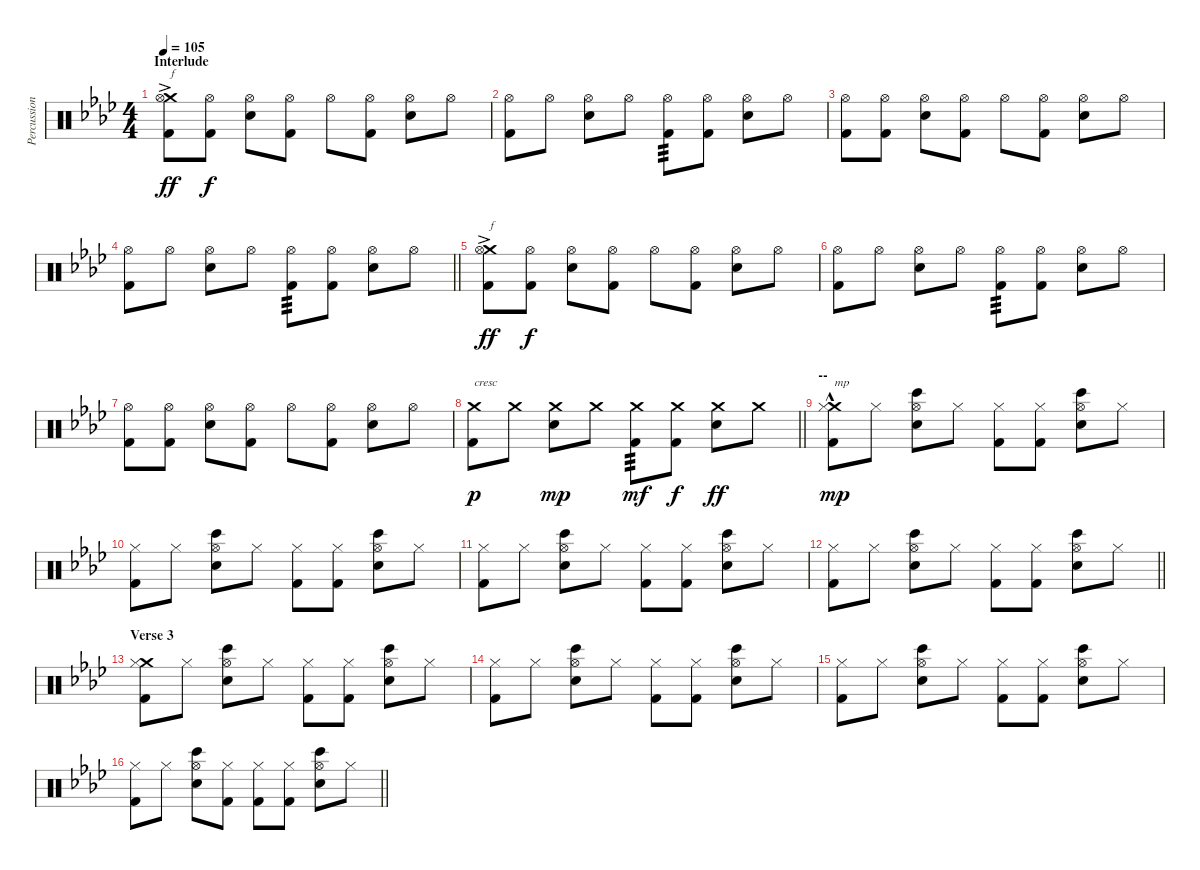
\track ("Percussion" "Percussion") {instrument percussion}
\staff {score}
\articulation defaults
\ts (4 4)
\section ("" "Interlude")
\tempo 105
\clef neutral
\ks fminor
("Crash medium (hit)"{ac} "Hi-Hat (open)"{ac} "Kick (hit) 2"{ac}).8{txt "f" dy ff} ("Hi-Hat (open)" "Kick (hit) 2").8{dy f} ("Hi-Hat (open)" "Electric Snare (hit)").8 ("Hi-Hat (open)" "Kick (hit) 2").8 "Hi-Hat (open)".8 ("Hi-Hat (open)" "Kick (hit) 2").8 ("Hi-Hat (open)" "Electric Snare (hit)").8 "Hi-Hat (open)".8 |
("Hi-Hat (open)" "Kick (hit) 2").8 "Hi-Hat (open)".8 ("Hi-Hat (open)" "Electric Snare (hit)").8 "Hi-Hat (open)".8 ("Hi-Hat (open)" "Kick (hit) 2").8{tp 3} ("Hi-Hat (open)" "Kick (hit) 2").8 ("Hi-Hat (open)" "Electric Snare (hit)").8 "Hi-Hat (open)".8 |
("Hi-Hat (open)" "Kick (hit) 2").8 ("Hi-Hat (open)" "Kick (hit) 2").8 ("Hi-Hat (open)" "Electric Snare (hit)").8 ("Hi-Hat (open)" "Kick (hit) 2").8 "Hi-Hat (open)".8 ("Hi-Hat (open)" "Kick (hit) 2").8 ("Hi-Hat (open)" "Electric Snare (hit)").8 "Hi-Hat (open)".8 |
\barLineRight lightlight
("Hi-Hat (open)" "Kick (hit) 2").8 "Hi-Hat (open)".8 ("Hi-Hat (open)" "Electric Snare (hit)").8 "Hi-Hat (open)".8 ("Hi-Hat (open)" "Kick (hit) 2").8{tp 3} ("Hi-Hat (open)" "Kick (hit) 2").8 ("Hi-Hat (open)" "Electric Snare (hit)").8 "Hi-Hat (open)".8 |
\section ("" "")
("Crash medium (hit)"{ac} "Hi-Hat (open)"{ac} "Kick (hit) 2"{ac}).8{txt "f" dy ff} ("Hi-Hat (open)" "Kick (hit) 2").8{dy f} ("Hi-Hat (open)" "Electric Snare (hit)").8 ("Hi-Hat (open)" "Kick (hit) 2").8 "Hi-Hat (open)".8 ("Hi-Hat (open)" "Kick (hit) 2").8 ("Hi-Hat (open)" "Electric Snare (hit)").8 "Hi-Hat (open)".8 |
("Hi-Hat (open)" "Kick (hit) 2").8 "Hi-Hat (open)".8 ("Hi-Hat (open)" "Electric Snare (hit)").8 "Hi-Hat (open)".8 ("Hi-Hat (open)" "Kick (hit) 2").8{tp 3} ("Hi-Hat (open)" "Kick (hit) 2").8 ("Hi-Hat (open)" "Electric Snare (hit)").8 "Hi-Hat (open)".8 |
("Hi-Hat (open)" "Kick (hit) 2").8 ("Hi-Hat (open)" "Kick (hit) 2").8 ("Hi-Hat (open)" "Electric Snare (hit)").8 ("Hi-Hat (open)" "Kick (hit) 2").8 "Hi-Hat (open)".8 ("Hi-Hat (open)" "Kick (hit) 2").8 ("Hi-Hat (open)" "Electric Snare (hit)").8 "Hi-Hat (open)".8 |
\barLineRight lightlight
("Crash medium (hit)" "Kick (hit) 2").8{txt "cresc" dy p} "Crash medium (hit)".8 ("Crash medium (hit)" "Electric Snare (hit)").8{dy mp} "Crash medium (hit)".8 ("Crash medium (hit)" "Kick (hit) 2").8{tp 3 dy mf} ("Crash medium (hit)" "Kick (hit) 2").8{dy f} ("Crash medium (hit)" "Electric Snare (hit)").8{dy ff} "Crash medium (hit)".8 |
\section ("" "--")
("Crash medium (hit)"{hac} "Hi-Hat (closed)" "Kick (hit) 2").8{txt "mp" dy mp} "Hi-Hat (closed)".8 ("Hi-Hat (open)" "Snare (hit) 2" "Bongo High (hit)").8 "Hi-Hat (closed)".8 ("Hi-Hat (closed)" "Kick (hit) 2").8 ("Hi-Hat (closed)" "Kick (hit) 2").8 ("Hi-Hat (open)" "Snare (hit) 2" "Bongo High (hit)").8 "Hi-Hat (closed)".8 |
("Hi-Hat (closed)" "Kick (hit) 2").8 "Hi-Hat (closed)".8 ("Hi-Hat (open)" "Snare (hit) 2" "Bongo High (hit)").8 "Hi-Hat (closed)".8 ("Hi-Hat (closed)" "Kick (hit) 2").8 ("Hi-Hat (closed)" "Kick (hit) 2").8 ("Hi-Hat (open)" "Snare (hit) 2" "Bongo High (hit)").8 "Hi-Hat (closed)".8 |
("Hi-Hat (closed)" "Kick (hit) 2").8 "Hi-Hat (closed)".8 ("Hi-Hat (open)" "Snare (hit) 2" "Bongo High (hit)").8 "Hi-Hat (closed)".8 ("Hi-Hat (closed)" "Kick (hit) 2").8 ("Hi-Hat (closed)" "Kick (hit) 2").8 ("Hi-Hat (open)" "Snare (hit) 2" "Bongo High (hit)").8 "Hi-Hat (closed)".8 |
\barLineRight lightlight
("Hi-Hat (closed)" "Kick (hit) 2").8 "Hi-Hat (closed)".8 ("Hi-Hat (open)" "Snare (hit) 2" "Bongo High (hit)").8 "Hi-Hat (closed)".8 ("Hi-Hat (closed)" "Kick (hit) 2").8 ("Hi-Hat (closed)" "Kick (hit) 2").8 ("Hi-Hat (open)" "Snare (hit) 2" "Bongo High (hit)").8 "Hi-Hat (closed)".8 |
\section ("" "Verse 3")
("Crash medium (hit)" "Hi-Hat (closed)" "Kick (hit) 2").8 "Hi-Hat (closed)".8 ("Hi-Hat (open)" "Snare (hit) 2" "Bongo High (hit)").8 "Hi-Hat (closed)".8 ("Hi-Hat (closed)" "Kick (hit) 2").8 ("Hi-Hat (closed)" "Kick (hit) 2").8 ("Hi-Hat (open)" "Snare (hit) 2" "Bongo High (hit)").8 "Hi-Hat (closed)".8 |
("Hi-Hat (closed)" "Kick (hit) 2").8 "Hi-Hat (closed)".8 ("Hi-Hat (open)" "Snare (hit) 2" "Bongo High (hit)").8 "Hi-Hat (closed)".8 ("Hi-Hat (closed)" "Kick (hit) 2").8 ("Hi-Hat (closed)" "Kick (hit) 2").8 ("Hi-Hat (open)" "Snare (hit) 2" "Bongo High (hit)").8 "Hi-Hat (closed)".8 |
("Hi-Hat (closed)" "Kick (hit) 2").8 "Hi-Hat (closed)".8 ("Hi-Hat (open)" "Snare (hit) 2" "Bongo High (hit)").8 "Hi-Hat (closed)".8 ("Hi-Hat (closed)" "Kick (hit) 2").8 ("Hi-Hat (closed)" "Kick (hit) 2").8 ("Hi-Hat (open)" "Snare (hit) 2" "Bongo High (hit)").8 "Hi-Hat (closed)".8 |
\barLineRight lightlight
("Hi-Hat (closed)" "Kick (hit) 2").8 "Hi-Hat (closed)".8 ("Hi-Hat (open)" "Snare (hit) 2" "Bongo High (hit)").8 ("Hi-Hat (closed)" "Kick (hit) 2").8 ("Hi-Hat (closed)" "Kick (hit) 2").8 ("Hi-Hat (closed)" "Kick (hit) 2").8 ("Hi-Hat (open)" "Snare (hit) 2" "Bongo High (hit)").8 "Hi-Hat (closed)".8
